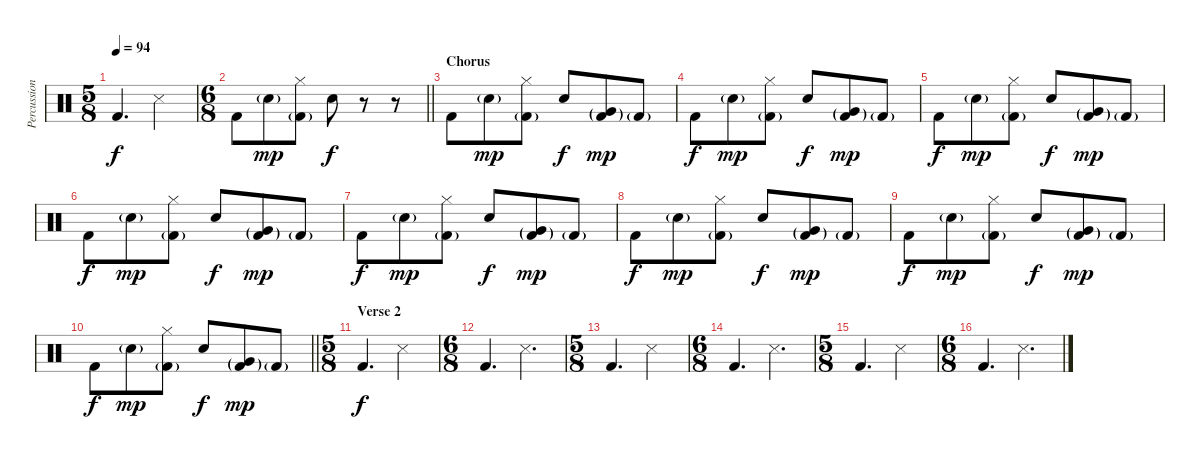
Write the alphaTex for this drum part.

\track ("Percussion" "Percussion") {instrument percussion}
\staff {score}
\articulation defaults
\ts (5 8)
\tempo 94
\clef neutral
\ks c "Kick (hit) 2".4{d dy f} "Snare (side stick) 3".4
|
\ts (6 8)
\barLineRight lightlight "Kick (hit) 2".8 "Snare (hit) 2"{g}.8{dy mp}
("Hi-Hat (closed)" "Kick (hit) 2"{g}).8 "Snare (hit) 2".8{dy f} r.8 r.8 |
\section ("" "Chorus")
"Kick (hit) 2".8 "Snare (hit) 2"{g}.8{dy mp} ("Hi-Hat (closed)" "Kick (hit) 2"{g}).8 "Snare (hit) 2".8{dy f} ("Very Low Tom (hit)"{g} "Kick (hit) 2"{g}).8{dy mp} "Kick (hit) 2"{g}.8 |
"Kick (hit) 2".8{dy f} "Snare (hit) 2"{g}.8{dy mp} ("Hi-Hat (closed)" "Kick (hit) 2"{g}).8 "Snare (hit) 2".8{dy f} ("Very Low Tom (hit)"{g} "Kick (hit) 2"{g}).8{dy mp} "Kick (hit) 2"{g}.8 |
"Kick (hit) 2".8{dy f} "Snare (hit) 2"{g}.8{dy mp} ("Hi-Hat (closed)" "Kick (hit) 2"{g}).8 "Snare (hit) 2".8{dy f} ("Very Low Tom (hit)"{g} "Kick (hit) 2"{g}).8{dy mp} "Kick (hit) 2"{g}.8 |
"Kick (hit) 2".8{dy f} "Snare (hit) 2"{g}.8{dy mp} ("Hi-Hat (closed)" "Kick (hit) 2"{g}).8 "Snare (hit) 2".8{dy f} ("Very Low Tom (hit)"{g} "Kick (hit) 2"{g}).8{dy mp} "Kick (hit) 2"{g}.8 |
"Kick (hit) 2".8{dy f} "Snare (hit) 2"{g}.8{dy mp} ("Hi-Hat (closed)" "Kick (hit) 2"{g}).8 "Snare (hit) 2".8{dy f} ("Very Low Tom (hit)"{g} "Kick (hit) 2"{g}).8{dy mp} "Kick (hit) 2"{g}.8 |
"Kick (hit) 2".8{dy f} "Snare (hit) 2"{g}.8{dy mp} ("Hi-Hat (closed)" "Kick (hit) 2"{g}).8 "Snare (hit) 2".8{dy f} ("Very Low Tom (hit)"{g} "Kick (hit) 2"{g}).8{dy mp} "Kick (hit) 2"{g}.8 |
"Kick (hit) 2".8{dy f} "Snare (hit) 2"{g}.8{dy mp} ("Hi-Hat (closed)" "Kick (hit) 2"{g}).8 "Snare (hit) 2".8{dy f} ("Very Low Tom (hit)"{g} "Kick (hit) 2"{g}).8{dy mp} "Kick (hit) 2"{g}.8 |
\barLineRight lightlight "Kick (hit) 2".8{dy f} "Snare (hit) 2"{g}.8{dy mp}
("Hi-Hat (closed)" "Kick (hit) 2"{g}).8 "Snare (hit) 2".8{dy f} ("Very Low Tom (hit)"{g} "Kick (hit) 2"{g}).8{dy mp} "Kick (hit) 2"{g}.8 |
\ts (5 8)
\section ("" "Verse 2")
"Kick (hit) 2".4{d dy f} "Snare (side stick) 3".4 |
\ts (6 8)
"Kick (hit) 2".4{d} "Snare (side stick) 3".4{d} |
\ts (5 8)
"Kick (hit) 2".4{d} "Snare (side stick) 3".4 |
\ts (6 8)
"Kick (hit) 2".4{d} "Snare (side stick) 3".4{d} |
\ts (5 8)
"Kick (hit) 2".4{d} "Snare (side stick) 3".4 |
\ts (6 8)
"Kick (hit) 2".4{d} "Snare (side stick) 3".4{d}
